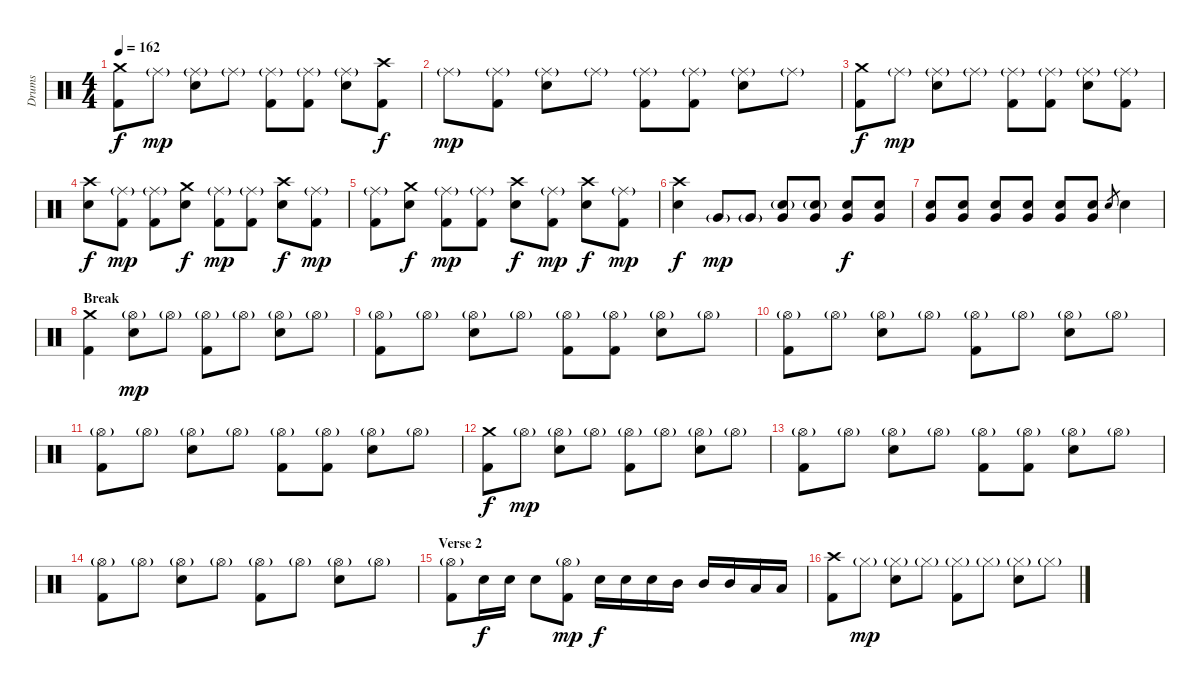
\track ("Drums" "Drums") {instrument percussion}
\staff {score}
\articulation defaults
\ts (4 4)
\tempo 162
\clef neutral
\ks c
("Crash medium (hit)" "Kick (hit) 2").8{dy f} "Ride (middle)"{g}.8{dy mp} ("Ride (middle)"{g} "Snare (hit) 2").8 "Ride (middle)"{g}.8 ("Ride (middle)"{g} "Kick (hit) 2").8 ("Ride (middle)"{g} "Kick (hit) 2").8 ("Ride (middle)"{g} "Snare (hit) 2").8 ("Crash high (hit)" "Kick (hit) 2").8{dy f} |
"Ride (middle)"{g}.8{dy mp} ("Ride (middle)"{g} "Kick (hit) 2").8 ("Ride (middle)"{g} "Snare (hit) 2").8 "Ride (middle)"{g}.8 ("Ride (middle)"{g} "Kick (hit) 2").8 ("Ride (middle)"{g} "Kick (hit) 2").8 ("Ride (middle)"{g} "Snare (hit) 2").8 "Ride (middle)"{g}.8 |
("Crash medium (hit)" "Kick (hit) 2").8{dy f} "Ride (middle)"{g}.8{dy mp} ("Ride (middle)"{g} "Snare (hit) 2").8 "Ride (middle)"{g}.8 ("Ride (middle)"{g} "Kick (hit) 2").8 ("Ride (middle)"{g} "Kick (hit) 2").8 ("Ride (middle)"{g} "Snare (hit) 2").8 ("Ride (middle)"{g} "Kick (hit) 2").8 |
("Crash high (hit)" "Snare (hit) 2").8{dy f} ("Ride (middle)"{g} "Kick (hit) 2").8{dy mp} ("Ride (middle)"{g} "Kick (hit) 2").8 ("Crash medium (hit)" "Snare (hit) 2").8{dy f} ("Ride (middle)"{g} "Kick (hit) 2").8{dy mp} ("Ride (middle)"{g} "Kick (hit) 2").8 ("Crash high (hit)" "Snare (hit) 2").8{dy f} ("Ride (middle)"{g} "Kick (hit) 2").8{dy mp} |
("Ride (middle)"{g} "Kick (hit) 2").8 ("Crash medium (hit)" "Snare (hit) 2").8{dy f} ("Ride (middle)"{g} "Kick (hit) 2").8{dy mp} ("Ride (middle)"{g} "Kick (hit) 2").8 ("Crash high (hit)" "Snare (hit) 2").8{dy f} ("Ride (middle)"{g} "Kick (hit) 2").8{dy mp} ("Crash high (hit)" "Snare (hit) 2").8{dy f} ("Ride (middle)"{g} "Kick (hit) 2").8{dy mp} |
("Crash high (hit)" "Snare (hit) 2").4{dy f} "Very Low Tom (hit)"{g}.8{dy mp volume 12} "Very Low Tom (hit)"{g}.8{volume 14} ("Very Low Tom (hit)" "Snare (hit) 2"{g}).8 ("Very Low Tom (hit)" "Snare (hit) 2"{g}).8 ("Very Low Tom (hit)" "Snare (hit) 2").8{dy f} ("Very Low Tom (hit)" "Snare (hit) 2").8 |
("Very Low Tom (hit)" "Snare (hit) 2").8 ("Very Low Tom (hit)" "Snare (hit) 2").8 ("Very Low Tom (hit)" "Snare (hit) 2").8 ("Very Low Tom (hit)" "Snare (hit) 2").8 ("Very Low Tom (hit)" "Snare (hit) 2").8 ("Very Low Tom (hit)" "Snare (hit) 2").8 "Snare (hit) 2".8{gr} "Snare (hit) 2".4 |
\section ("" "Break")
("Crash medium (hit)" "Kick (hit) 2").4 ("Hi-Hat (open)"{g} "Snare (hit) 2").8{dy mp} "Hi-Hat (open)"{g}.8 ("Hi-Hat (open)"{g} "Kick (hit) 2").8 "Hi-Hat (open)"{g}.8 ("Hi-Hat (open)"{g} "Snare (hit) 2").8 "Hi-Hat (open)"{g}.8 |
("Hi-Hat (open)"{g} "Kick (hit) 2").8 "Hi-Hat (open)"{g}.8 ("Hi-Hat (open)"{g} "Snare (hit) 2").8 "Hi-Hat (open)"{g}.8 ("Hi-Hat (open)"{g} "Kick (hit) 2").8 ("Hi-Hat (open)"{g} "Kick (hit) 2").8 ("Hi-Hat (open)"{g} "Snare (hit) 2").8 "Hi-Hat (open)"{g}.8 |
("Hi-Hat (open)"{g} "Kick (hit) 2").8 "Hi-Hat (open)"{g}.8 ("Hi-Hat (open)"{g} "Snare (hit) 2").8 "Hi-Hat (open)"{g}.8 ("Hi-Hat (open)"{g} "Kick (hit) 2").8 "Hi-Hat (open)"{g}.8 ("Hi-Hat (open)"{g} "Snare (hit) 2").8 "Hi-Hat (open)"{g}.8 |
("Hi-Hat (open)"{g} "Kick (hit) 2").8 "Hi-Hat (open)"{g}.8 ("Hi-Hat (open)"{g} "Snare (hit) 2").8 "Hi-Hat (open)"{g}.8 ("Hi-Hat (open)"{g} "Kick (hit) 2").8 ("Hi-Hat (open)"{g} "Kick (hit) 2").8 ("Hi-Hat (open)"{g} "Snare (hit) 2").8 "Hi-Hat (open)"{g}.8 |
("Crash medium (hit)" "Kick (hit) 2").8{dy f} "Hi-Hat (open)"{g}.8{dy mp} ("Hi-Hat (open)"{g} "Snare (hit) 2").8 "Hi-Hat (open)"{g}.8 ("Hi-Hat (open)"{g} "Kick (hit) 2").8 "Hi-Hat (open)"{g}.8 ("Hi-Hat (open)"{g} "Snare (hit) 2").8 "Hi-Hat (open)"{g}.8 |
("Hi-Hat (open)"{g} "Kick (hit) 2").8 "Hi-Hat (open)"{g}.8 ("Hi-Hat (open)"{g} "Snare (hit) 2").8 "Hi-Hat (open)"{g}.8 ("Hi-Hat (open)"{g} "Kick (hit) 2").8 ("Hi-Hat (open)"{g} "Kick (hit) 2").8 ("Hi-Hat (open)"{g} "Snare (hit) 2").8 "Hi-Hat (open)"{g}.8 |
("Hi-Hat (open)"{g} "Kick (hit) 2").8 "Hi-Hat (open)"{g}.8 ("Hi-Hat (open)"{g} "Snare (hit) 2").8 "Hi-Hat (open)"{g}.8 ("Hi-Hat (open)"{g} "Kick (hit) 2").8 "Hi-Hat (open)"{g}.8 ("Hi-Hat (open)"{g} "Snare (hit) 2").8 "Hi-Hat (open)"{g}.8 |
\section ("" "Verse 2")
("Hi-Hat (open)"{g} "Kick (hit) 2").8 "Snare (hit) 2".16{dy f} "Snare (hit) 2".16 "Snare (hit) 2".8 ("Hi-Hat (open)"{g} "Kick (hit) 2").8{dy mp} "Snare (hit) 2".16{dy f} "Snare (hit) 2".16 "Snare (hit) 2".16 "Mid Tom (hit)".16 "Mid Tom (hit)".16 "Mid Tom (hit)".16 "Low Tom (hit)".16 "Low Tom (hit)".16 |
("Crash high (hit)" "Kick (hit) 2").8 "Hi-Hat (closed)"{g}.8{dy mp} ("Hi-Hat (closed)"{g} "Snare (hit) 2").8 "Hi-Hat (closed)"{g}.8 ("Hi-Hat (closed)"{g} "Kick (hit) 2").8 "Hi-Hat (closed)"{g}.8 ("Hi-Hat (closed)"{g} "Snare (hit) 2").8 "Hi-Hat (closed)"{g}.8
